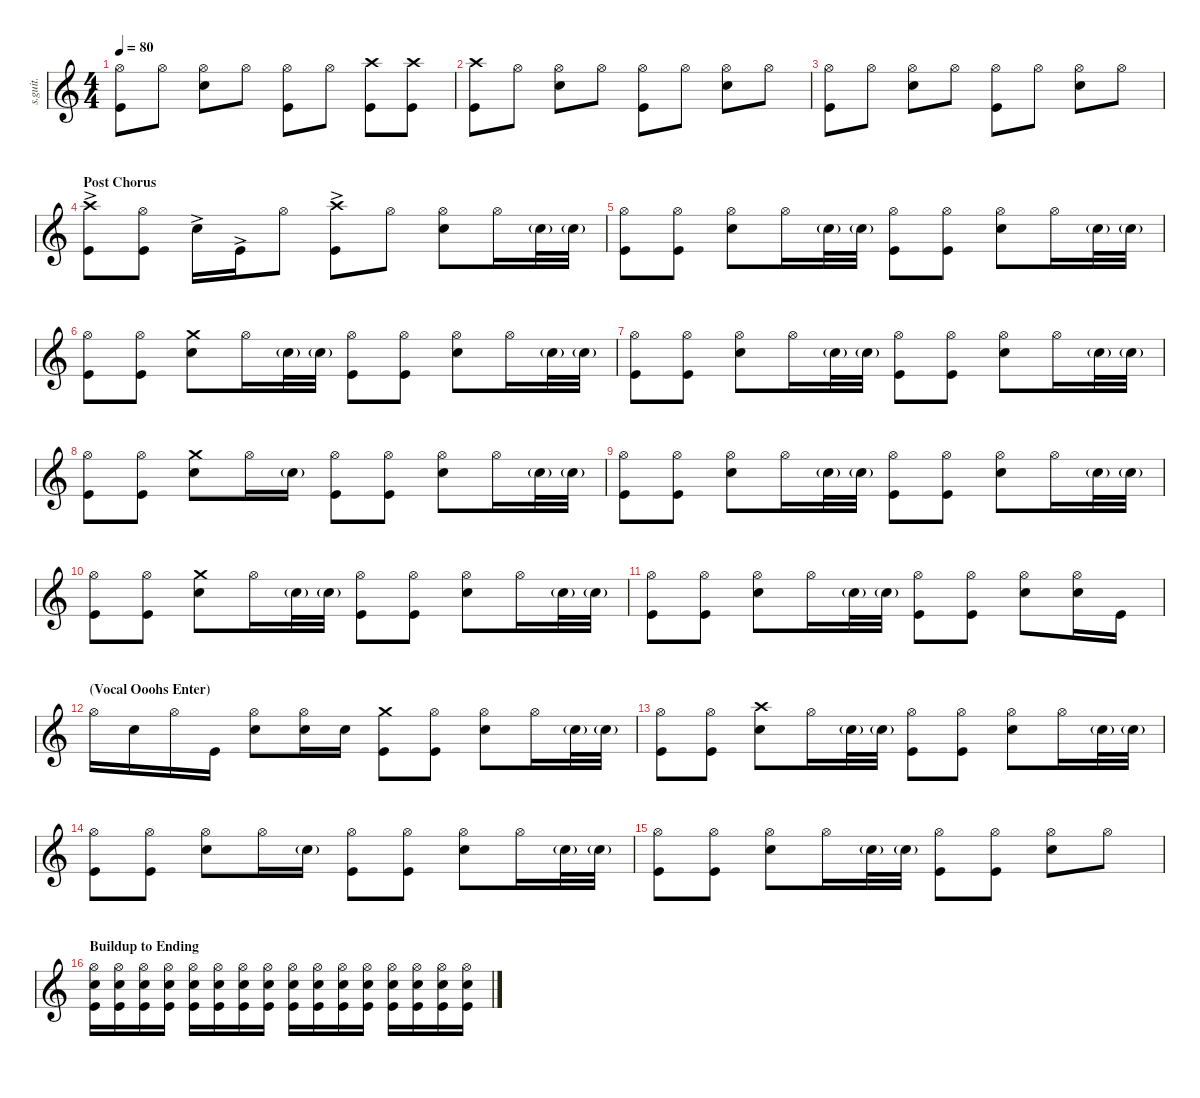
\defaultSystemsLayout 4
\hideDynamics
\bracketExtendMode nobrackets
\track ("Drums (Wilson)" "s.guit.") {instrument percussion}
\staff {score}
\articulation defaults
\ts (4 4)
\tempo 80
\clef g2
\ks c
("Hi-Hat (open)" "Kick (hit)").8{lyrics (0 "") lyrics (1 "") lyrics (2 "") lyrics (3 "") lyrics (4 "") dy f} "Hi-Hat (open)".8{lyrics (0 "") lyrics (1 "") lyrics (2 "") lyrics (3 "") lyrics (4 "")} ("Hi-Hat (open)" "Snare (hit) 2").8{lyrics (0 "") lyrics (1 "") lyrics (2 "") lyrics (3 "") lyrics (4 "")} "Hi-Hat (open)".8{lyrics (0 "") lyrics (1 "") lyrics (2 "") lyrics (3 "") lyrics (4 "")} ("Hi-Hat (open)" "Kick (hit)").8{lyrics (0 "") lyrics (1 "") lyrics (2 "") lyrics (3 "") lyrics (4 "")} "Hi-Hat (open)".8{lyrics (0 "") lyrics (1 "") lyrics (2 "") lyrics (3 "") lyrics (4 "")} ("Crash high (hit)" "Kick (hit)").8{lyrics (0 "") lyrics (1 "") lyrics (2 "") lyrics (3 "") lyrics (4 "")} ("Crash high (hit)" "Kick (hit)").8{lyrics (0 "") lyrics (1 "") lyrics (2 "") lyrics (3 "") lyrics (4 "")} |
("Crash high (hit)" "Kick (hit)").8{lyrics (0 "") lyrics (1 "") lyrics (2 "") lyrics (3 "") lyrics (4 "")} "Hi-Hat (open)".8{lyrics (0 "") lyrics (1 "") lyrics (2 "") lyrics (3 "") lyrics (4 "")} ("Hi-Hat (open)" "Snare (hit) 2").8{lyrics (0 "") lyrics (1 "") lyrics (2 "") lyrics (3 "") lyrics (4 "")} "Hi-Hat (open)".8{lyrics (0 "") lyrics (1 "") lyrics (2 "") lyrics (3 "") lyrics (4 "")} ("Hi-Hat (open)" "Kick (hit)").8{lyrics (0 "") lyrics (1 "") lyrics (2 "") lyrics (3 "") lyrics (4 "")} "Hi-Hat (open)".8{lyrics (0 "") lyrics (1 "") lyrics (2 "") lyrics (3 "") lyrics (4 "")} ("Hi-Hat (open)" "Snare (hit) 2").8{lyrics (0 "") lyrics (1 "") lyrics (2 "") lyrics (3 "") lyrics (4 "")} "Hi-Hat (open)".8{lyrics (0 "") lyrics (1 "") lyrics (2 "") lyrics (3 "") lyrics (4 "")} |
("Hi-Hat (open)" "Kick (hit)").8{lyrics (0 "") lyrics (1 "") lyrics (2 "") lyrics (3 "") lyrics (4 "")} "Hi-Hat (open)".8{lyrics (0 "") lyrics (1 "") lyrics (2 "") lyrics (3 "") lyrics (4 "")} ("Hi-Hat (open)" "Snare (hit) 2").8{lyrics (0 "") lyrics (1 "") lyrics (2 "") lyrics (3 "") lyrics (4 "")} "Hi-Hat (open)".8{lyrics (0 "") lyrics (1 "") lyrics (2 "") lyrics (3 "") lyrics (4 "")} ("Hi-Hat (open)" "Kick (hit)").8{lyrics (0 "") lyrics (1 "") lyrics (2 "") lyrics (3 "") lyrics (4 "")} "Hi-Hat (open)".8{lyrics (0 "") lyrics (1 "") lyrics (2 "") lyrics (3 "") lyrics (4 "")} ("Hi-Hat (open)" "Snare (hit) 2").8{lyrics (0 "") lyrics (1 "") lyrics (2 "") lyrics (3 "") lyrics (4 "")} "Hi-Hat (open)".8{lyrics (0 "") lyrics (1 "") lyrics (2 "") lyrics (3 "") lyrics (4 "")} |
\section ("" "Post Chorus")
("Crash high (hit)"{ac} "Kick (hit)"{ac}).8{lyrics (0 "") lyrics (1 "") lyrics (2 "") lyrics (3 "") lyrics (4 "")} ("Hi-Hat (open)" "Kick (hit)").8{lyrics (0 "") lyrics (1 "") lyrics (2 "") lyrics (3 "") lyrics (4 "")} "Snare (hit) 2"{ac}.16{lyrics (0 "") lyrics (1 "") lyrics (2 "") lyrics (3 "") lyrics (4 "")} "Kick (hit)"{ac}.16{lyrics (0 "") lyrics (1 "") lyrics (2 "") lyrics (3 "") lyrics (4 "")} "Hi-Hat (open)".8{lyrics (0 "") lyrics (1 "") lyrics (2 "") lyrics (3 "") lyrics (4 "")} ("Crash high (hit)"{ac} "Kick (hit)"{ac}).8{lyrics (0 "") lyrics (1 "") lyrics (2 "") lyrics (3 "") lyrics (4 "")} "Hi-Hat (open)".8{lyrics (0 "") lyrics (1 "") lyrics (2 "") lyrics (3 "") lyrics (4 "")} ("Hi-Hat (open)" "Snare (hit) 2").8{lyrics (0 "") lyrics (1 "") lyrics (2 "") lyrics (3 "") lyrics (4 "")} "Hi-Hat (open)".16{lyrics (0 "") lyrics (1 "") lyrics (2 "") lyrics (3 "") lyrics (4 "")} "Snare (hit) 2"{g}.32{lyrics (0 "") lyrics (1 "") lyrics (2 "") lyrics (3 "") lyrics (4 "") dy pp} "Snare (hit) 2"{g}.32{lyrics (0 "") lyrics (1 "") lyrics (2 "") lyrics (3 "") lyrics (4 "")} |
("Hi-Hat (open)" "Kick (hit)").8{lyrics (0 "") lyrics (1 "") lyrics (2 "") lyrics (3 "") lyrics (4 "") dy f} ("Hi-Hat (open)" "Kick (hit)").8{lyrics (0 "") lyrics (1 "") lyrics (2 "") lyrics (3 "") lyrics (4 "")} ("Hi-Hat (open)" "Snare (hit) 2").8{lyrics (0 "") lyrics (1 "") lyrics (2 "") lyrics (3 "") lyrics (4 "")} "Hi-Hat (open)".16{lyrics (0 "") lyrics (1 "") lyrics (2 "") lyrics (3 "") lyrics (4 "")} "Snare (hit) 2"{g}.32{lyrics (0 "") lyrics (1 "") lyrics (2 "") lyrics (3 "") lyrics (4 "") dy pp} "Snare (hit) 2"{g}.32{lyrics (0 "") lyrics (1 "") lyrics (2 "") lyrics (3 "") lyrics (4 "")} ("Hi-Hat (open)" "Kick (hit)").8{lyrics (0 "") lyrics (1 "") lyrics (2 "") lyrics (3 "") lyrics (4 "") dy f} ("Hi-Hat (open)" "Kick (hit)").8{lyrics (0 "") lyrics (1 "") lyrics (2 "") lyrics (3 "") lyrics (4 "")} ("Hi-Hat (open)" "Snare (hit) 2").8{lyrics (0 "") lyrics (1 "") lyrics (2 "") lyrics (3 "") lyrics (4 "")} "Hi-Hat (open)".16{lyrics (0 "") lyrics (1 "") lyrics (2 "") lyrics (3 "") lyrics (4 "")} "Snare (hit) 2"{g}.32{lyrics (0 "") lyrics (1 "") lyrics (2 "") lyrics (3 "") lyrics (4 "") dy pp} "Snare (hit) 2"{g}.32{lyrics (0 "") lyrics (1 "") lyrics (2 "") lyrics (3 "") lyrics (4 "")} |
("Hi-Hat (open)" "Kick (hit)").8{lyrics (0 "") lyrics (1 "") lyrics (2 "") lyrics (3 "") lyrics (4 "") dy f} ("Hi-Hat (open)" "Kick (hit)").8{lyrics (0 "") lyrics (1 "") lyrics (2 "") lyrics (3 "") lyrics (4 "")} ("Crash medium (hit)" "Snare (hit) 2").8{lyrics (0 "") lyrics (1 "") lyrics (2 "") lyrics (3 "") lyrics (4 "")} "Hi-Hat (open)".16{lyrics (0 "") lyrics (1 "") lyrics (2 "") lyrics (3 "") lyrics (4 "")} "Snare (hit) 2"{g}.32{lyrics (0 "") lyrics (1 "") lyrics (2 "") lyrics (3 "") lyrics (4 "") dy pp} "Snare (hit) 2"{g}.32{lyrics (0 "") lyrics (1 "") lyrics (2 "") lyrics (3 "") lyrics (4 "")} ("Hi-Hat (open)" "Kick (hit)").8{lyrics (0 "") lyrics (1 "") lyrics (2 "") lyrics (3 "") lyrics (4 "") dy f} ("Hi-Hat (open)" "Kick (hit)").8{lyrics (0 "") lyrics (1 "") lyrics (2 "") lyrics (3 "") lyrics (4 "")} ("Hi-Hat (open)" "Snare (hit) 2").8{lyrics (0 "") lyrics (1 "") lyrics (2 "") lyrics (3 "") lyrics (4 "")} "Hi-Hat (open)".16{lyrics (0 "") lyrics (1 "") lyrics (2 "") lyrics (3 "") lyrics (4 "")} "Snare (hit) 2"{g}.32{lyrics (0 "") lyrics (1 "") lyrics (2 "") lyrics (3 "") lyrics (4 "") dy pp} "Snare (hit) 2"{g}.32{lyrics (0 "") lyrics (1 "") lyrics (2 "") lyrics (3 "") lyrics (4 "")} |
("Hi-Hat (open)" "Kick (hit)").8{lyrics (0 "") lyrics (1 "") lyrics (2 "") lyrics (3 "") lyrics (4 "") dy f} ("Hi-Hat (open)" "Kick (hit)").8{lyrics (0 "") lyrics (1 "") lyrics (2 "") lyrics (3 "") lyrics (4 "")} ("Hi-Hat (open)" "Snare (hit) 2").8{lyrics (0 "") lyrics (1 "") lyrics (2 "") lyrics (3 "") lyrics (4 "")} "Hi-Hat (open)".16{lyrics (0 "") lyrics (1 "") lyrics (2 "") lyrics (3 "") lyrics (4 "")} "Snare (hit) 2"{g}.32{lyrics (0 "") lyrics (1 "") lyrics (2 "") lyrics (3 "") lyrics (4 "") dy pp} "Snare (hit) 2"{g}.32{lyrics (0 "") lyrics (1 "") lyrics (2 "") lyrics (3 "") lyrics (4 "")} ("Hi-Hat (open)" "Kick (hit)").8{lyrics (0 "") lyrics (1 "") lyrics (2 "") lyrics (3 "") lyrics (4 "") dy f} ("Hi-Hat (open)" "Kick (hit)").8{lyrics (0 "") lyrics (1 "") lyrics (2 "") lyrics (3 "") lyrics (4 "")} ("Hi-Hat (open)" "Snare (hit) 2").8{lyrics (0 "") lyrics (1 "") lyrics (2 "") lyrics (3 "") lyrics (4 "")} "Hi-Hat (open)".16{lyrics (0 "") lyrics (1 "") lyrics (2 "") lyrics (3 "") lyrics (4 "")} "Snare (hit) 2"{g}.32{lyrics (0 "") lyrics (1 "") lyrics (2 "") lyrics (3 "") lyrics (4 "") dy pp} "Snare (hit) 2"{g}.32{lyrics (0 "") lyrics (1 "") lyrics (2 "") lyrics (3 "") lyrics (4 "")} |
("Hi-Hat (open)" "Kick (hit)").8{lyrics (0 "") lyrics (1 "") lyrics (2 "") lyrics (3 "") lyrics (4 "") dy f} ("Hi-Hat (open)" "Kick (hit)").8{lyrics (0 "") lyrics (1 "") lyrics (2 "") lyrics (3 "") lyrics (4 "")} ("Crash medium (hit)" "Snare (hit) 2").8{lyrics (0 "") lyrics (1 "") lyrics (2 "") lyrics (3 "") lyrics (4 "")} "Hi-Hat (open)".16{lyrics (0 "") lyrics (1 "") lyrics (2 "") lyrics (3 "") lyrics (4 "")} "Snare (hit) 2"{g}.16{lyrics (0 "") lyrics (1 "") lyrics (2 "") lyrics (3 "") lyrics (4 "") dy pp} ("Hi-Hat (open)" "Kick (hit)").8{lyrics (0 "") lyrics (1 "") lyrics (2 "") lyrics (3 "") lyrics (4 "") dy f} ("Hi-Hat (open)" "Kick (hit)").8{lyrics (0 "") lyrics (1 "") lyrics (2 "") lyrics (3 "") lyrics (4 "")} ("Hi-Hat (open)" "Snare (hit) 2").8{lyrics (0 "") lyrics (1 "") lyrics (2 "") lyrics (3 "") lyrics (4 "")} "Hi-Hat (open)".16{lyrics (0 "") lyrics (1 "") lyrics (2 "") lyrics (3 "") lyrics (4 "")} "Snare (hit) 2"{g}.32{lyrics (0 "") lyrics (1 "") lyrics (2 "") lyrics (3 "") lyrics (4 "") dy pp} "Snare (hit) 2"{g}.32{lyrics (0 "") lyrics (1 "") lyrics (2 "") lyrics (3 "") lyrics (4 "")} |
("Hi-Hat (open)" "Kick (hit)").8{lyrics (0 "") lyrics (1 "") lyrics (2 "") lyrics (3 "") lyrics (4 "") dy f} ("Hi-Hat (open)" "Kick (hit)").8{lyrics (0 "") lyrics (1 "") lyrics (2 "") lyrics (3 "") lyrics (4 "")} ("Hi-Hat (open)" "Snare (hit) 2").8{lyrics (0 "") lyrics (1 "") lyrics (2 "") lyrics (3 "") lyrics (4 "")} "Hi-Hat (open)".16{lyrics (0 "") lyrics (1 "") lyrics (2 "") lyrics (3 "") lyrics (4 "")} "Snare (hit) 2"{g}.32{lyrics (0 "") lyrics (1 "") lyrics (2 "") lyrics (3 "") lyrics (4 "") dy pp} "Snare (hit) 2"{g}.32{lyrics (0 "") lyrics (1 "") lyrics (2 "") lyrics (3 "") lyrics (4 "")} ("Hi-Hat (open)" "Kick (hit)").8{lyrics (0 "") lyrics (1 "") lyrics (2 "") lyrics (3 "") lyrics (4 "") dy f} ("Hi-Hat (open)" "Kick (hit)").8{lyrics (0 "") lyrics (1 "") lyrics (2 "") lyrics (3 "") lyrics (4 "")} ("Hi-Hat (open)" "Snare (hit) 2").8{lyrics (0 "") lyrics (1 "") lyrics (2 "") lyrics (3 "") lyrics (4 "")} "Hi-Hat (open)".16{lyrics (0 "") lyrics (1 "") lyrics (2 "") lyrics (3 "") lyrics (4 "")} "Snare (hit) 2"{g}.32{lyrics (0 "") lyrics (1 "") lyrics (2 "") lyrics (3 "") lyrics (4 "") dy pp} "Snare (hit) 2"{g}.32{lyrics (0 "") lyrics (1 "") lyrics (2 "") lyrics (3 "") lyrics (4 "")} |
("Hi-Hat (open)" "Kick (hit)").8{lyrics (0 "") lyrics (1 "") lyrics (2 "") lyrics (3 "") lyrics (4 "") dy f} ("Hi-Hat (open)" "Kick (hit)").8{lyrics (0 "") lyrics (1 "") lyrics (2 "") lyrics (3 "") lyrics (4 "")} ("Crash medium (hit)" "Snare (hit) 2").8{lyrics (0 "") lyrics (1 "") lyrics (2 "") lyrics (3 "") lyrics (4 "")} "Hi-Hat (open)".16{lyrics (0 "") lyrics (1 "") lyrics (2 "") lyrics (3 "") lyrics (4 "")} "Snare (hit) 2"{g}.32{lyrics (0 "") lyrics (1 "") lyrics (2 "") lyrics (3 "") lyrics (4 "") dy pp} "Snare (hit) 2"{g}.32{lyrics (0 "") lyrics (1 "") lyrics (2 "") lyrics (3 "") lyrics (4 "")} ("Hi-Hat (open)" "Kick (hit)").8{lyrics (0 "") lyrics (1 "") lyrics (2 "") lyrics (3 "") lyrics (4 "") dy f} ("Hi-Hat (open)" "Kick (hit)").8{lyrics (0 "") lyrics (1 "") lyrics (2 "") lyrics (3 "") lyrics (4 "")} ("Hi-Hat (open)" "Snare (hit) 2").8{lyrics (0 "") lyrics (1 "") lyrics (2 "") lyrics (3 "") lyrics (4 "")} "Hi-Hat (open)".16{lyrics (0 "") lyrics (1 "") lyrics (2 "") lyrics (3 "") lyrics (4 "")} "Snare (hit) 2"{g}.32{lyrics (0 "") lyrics (1 "") lyrics (2 "") lyrics (3 "") lyrics (4 "") dy pp} "Snare (hit) 2"{g}.32{lyrics (0 "") lyrics (1 "") lyrics (2 "") lyrics (3 "") lyrics (4 "")} |
("Hi-Hat (open)" "Kick (hit)").8{lyrics (0 "") lyrics (1 "") lyrics (2 "") lyrics (3 "") lyrics (4 "") dy f} ("Hi-Hat (open)" "Kick (hit)").8{lyrics (0 "") lyrics (1 "") lyrics (2 "") lyrics (3 "") lyrics (4 "")} ("Hi-Hat (open)" "Snare (hit) 2").8{lyrics (0 "") lyrics (1 "") lyrics (2 "") lyrics (3 "") lyrics (4 "")} "Hi-Hat (open)".16{lyrics (0 "") lyrics (1 "") lyrics (2 "") lyrics (3 "") lyrics (4 "")} "Snare (hit) 2"{g}.32{lyrics (0 "") lyrics (1 "") lyrics (2 "") lyrics (3 "") lyrics (4 "") dy pp} "Snare (hit) 2"{g}.32{lyrics (0 "") lyrics (1 "") lyrics (2 "") lyrics (3 "") lyrics (4 "")} ("Hi-Hat (open)" "Kick (hit)").8{lyrics (0 "") lyrics (1 "") lyrics (2 "") lyrics (3 "") lyrics (4 "") dy f} ("Hi-Hat (open)" "Kick (hit)").8{lyrics (0 "") lyrics (1 "") lyrics (2 "") lyrics (3 "") lyrics (4 "")} ("Hi-Hat (open)" "Snare (hit) 2").8{lyrics (0 "") lyrics (1 "") lyrics (2 "") lyrics (3 "") lyrics (4 "")} ("Hi-Hat (open)" "Snare (hit) 2").16{lyrics (0 "") lyrics (1 "") lyrics (2 "") lyrics (3 "") lyrics (4 "")} "Kick (hit)".16{lyrics (0 "") lyrics (1 "") lyrics (2 "") lyrics (3 "") lyrics (4 "")} |
\section ("" "(Vocal Ooohs Enter)")
"Hi-Hat (open)".16{lyrics (0 "") lyrics (1 "") lyrics (2 "") lyrics (3 "") lyrics (4 "")} "Snare (hit) 2".16{lyrics (0 "") lyrics (1 "") lyrics (2 "") lyrics (3 "") lyrics (4 "")} "Hi-Hat (open)".16{lyrics (0 "") lyrics (1 "") lyrics (2 "") lyrics (3 "") lyrics (4 "")} "Kick (hit)".16{lyrics (0 "") lyrics (1 "") lyrics (2 "") lyrics (3 "") lyrics (4 "")} ("Hi-Hat (open)" "Snare (hit) 2").8{lyrics (0 "") lyrics (1 "") lyrics (2 "") lyrics (3 "") lyrics (4 "")} ("Hi-Hat (open)" "Snare (hit) 2").16{lyrics (0 "") lyrics (1 "") lyrics (2 "") lyrics (3 "") lyrics (4 "")} "Snare (hit) 2".16{lyrics (0 "") lyrics (1 "") lyrics (2 "") lyrics (3 "") lyrics (4 "")} ("Crash medium (hit)" "Kick (hit)").8{lyrics (0 "") lyrics (1 "") lyrics (2 "") lyrics (3 "") lyrics (4 "")} ("Hi-Hat (open)" "Kick (hit)").8{lyrics (0 "") lyrics (1 "") lyrics (2 "") lyrics (3 "") lyrics (4 "")} ("Hi-Hat (open)" "Snare (hit) 2").8{lyrics (0 "") lyrics (1 "") lyrics (2 "") lyrics (3 "") lyrics (4 "")} "Hi-Hat (open)".16{lyrics (0 "") lyrics (1 "") lyrics (2 "") lyrics (3 "") lyrics (4 "")} "Snare (hit) 2"{g}.32{lyrics (0 "") lyrics (1 "") lyrics (2 "") lyrics (3 "") lyrics (4 "") dy pp} "Snare (hit) 2"{g}.32{lyrics (0 "") lyrics (1 "") lyrics (2 "") lyrics (3 "") lyrics (4 "")} |
("Hi-Hat (open)" "Kick (hit)").8{lyrics (0 "") lyrics (1 "") lyrics (2 "") lyrics (3 "") lyrics (4 "") dy f} ("Hi-Hat (open)" "Kick (hit)").8{lyrics (0 "") lyrics (1 "") lyrics (2 "") lyrics (3 "") lyrics (4 "")} ("Crash high (hit)" "Snare (hit) 2").8{lyrics (0 "") lyrics (1 "") lyrics (2 "") lyrics (3 "") lyrics (4 "")} "Hi-Hat (open)".16{lyrics (0 "") lyrics (1 "") lyrics (2 "") lyrics (3 "") lyrics (4 "")} "Snare (hit) 2"{g}.32{lyrics (0 "") lyrics (1 "") lyrics (2 "") lyrics (3 "") lyrics (4 "") dy pp} "Snare (hit) 2"{g}.32{lyrics (0 "") lyrics (1 "") lyrics (2 "") lyrics (3 "") lyrics (4 "")} ("Hi-Hat (open)" "Kick (hit)").8{lyrics (0 "") lyrics (1 "") lyrics (2 "") lyrics (3 "") lyrics (4 "") dy f} ("Hi-Hat (open)" "Kick (hit)").8{lyrics (0 "") lyrics (1 "") lyrics (2 "") lyrics (3 "") lyrics (4 "")} ("Hi-Hat (open)" "Snare (hit) 2").8{lyrics (0 "") lyrics (1 "") lyrics (2 "") lyrics (3 "") lyrics (4 "")} "Hi-Hat (open)".16{lyrics (0 "") lyrics (1 "") lyrics (2 "") lyrics (3 "") lyrics (4 "")} "Snare (hit) 2"{g}.32{lyrics (0 "") lyrics (1 "") lyrics (2 "") lyrics (3 "") lyrics (4 "") dy pp} "Snare (hit) 2"{g}.32{lyrics (0 "") lyrics (1 "") lyrics (2 "") lyrics (3 "") lyrics (4 "")} |
("Hi-Hat (open)" "Kick (hit)").8{lyrics (0 "") lyrics (1 "") lyrics (2 "") lyrics (3 "") lyrics (4 "") dy f} ("Hi-Hat (open)" "Kick (hit)").8{lyrics (0 "") lyrics (1 "") lyrics (2 "") lyrics (3 "") lyrics (4 "")} ("Hi-Hat (open)" "Snare (hit) 2").8{lyrics (0 "") lyrics (1 "") lyrics (2 "") lyrics (3 "") lyrics (4 "")} "Hi-Hat (open)".16{lyrics (0 "") lyrics (1 "") lyrics (2 "") lyrics (3 "") lyrics (4 "")} "Snare (hit) 2"{g}.16{lyrics (0 "") lyrics (1 "") lyrics (2 "") lyrics (3 "") lyrics (4 "") dy pp} ("Hi-Hat (open)" "Kick (hit)").8{lyrics (0 "") lyrics (1 "") lyrics (2 "") lyrics (3 "") lyrics (4 "") dy f} ("Hi-Hat (open)" "Kick (hit)").8{lyrics (0 "") lyrics (1 "") lyrics (2 "") lyrics (3 "") lyrics (4 "")} ("Hi-Hat (open)" "Snare (hit) 2").8{lyrics (0 "") lyrics (1 "") lyrics (2 "") lyrics (3 "") lyrics (4 "")} "Hi-Hat (open)".16{lyrics (0 "") lyrics (1 "") lyrics (2 "") lyrics (3 "") lyrics (4 "")} "Snare (hit) 2"{g}.32{lyrics (0 "") lyrics (1 "") lyrics (2 "") lyrics (3 "") lyrics (4 "") dy pp} "Snare (hit) 2"{g}.32{lyrics (0 "") lyrics (1 "") lyrics (2 "") lyrics (3 "") lyrics (4 "")} |
("Hi-Hat (open)" "Kick (hit)").8{lyrics (0 "") lyrics (1 "") lyrics (2 "") lyrics (3 "") lyrics (4 "") dy f} ("Hi-Hat (open)" "Kick (hit)").8{lyrics (0 "") lyrics (1 "") lyrics (2 "") lyrics (3 "") lyrics (4 "")} ("Hi-Hat (open)" "Snare (hit) 2").8{lyrics (0 "") lyrics (1 "") lyrics (2 "") lyrics (3 "") lyrics (4 "")} "Hi-Hat (open)".16{lyrics (0 "") lyrics (1 "") lyrics (2 "") lyrics (3 "") lyrics (4 "")} "Snare (hit) 2"{g}.32{lyrics (0 "") lyrics (1 "") lyrics (2 "") lyrics (3 "") lyrics (4 "") dy pp} "Snare (hit) 2"{g}.32{lyrics (0 "") lyrics (1 "") lyrics (2 "") lyrics (3 "") lyrics (4 "")} ("Hi-Hat (open)" "Kick (hit)").8{lyrics (0 "") lyrics (1 "") lyrics (2 "") lyrics (3 "") lyrics (4 "") dy f} ("Hi-Hat (open)" "Kick (hit)").8{lyrics (0 "") lyrics (1 "") lyrics (2 "") lyrics (3 "") lyrics (4 "")} ("Hi-Hat (open)" "Snare (hit) 2").8{lyrics (0 "") lyrics (1 "") lyrics (2 "") lyrics (3 "") lyrics (4 "")} "Hi-Hat (open)".8{lyrics (0 "") lyrics (1 "") lyrics (2 "") lyrics (3 "") lyrics (4 "")} |
\section ("" "Buildup to Ending")
("Hi-Hat (open)" "Snare (hit) 2" "Kick (hit)").16{lyrics (0 "") lyrics (1 "") lyrics (2 "") lyrics (3 "") lyrics (4 "")} ("Hi-Hat (open)" "Snare (hit) 2" "Kick (hit)").16{lyrics (0 "") lyrics (1 "") lyrics (2 "") lyrics (3 "") lyrics (4 "") dy p} ("Hi-Hat (open)" "Snare (hit) 2" "Kick (hit)").16{lyrics (0 "") lyrics (1 "") lyrics (2 "") lyrics (3 "") lyrics (4 "")} ("Hi-Hat (open)" "Snare (hit) 2" "Kick (hit)").16{lyrics (0 "") lyrics (1 "") lyrics (2 "") lyrics (3 "") lyrics (4 "")} ("Hi-Hat (open)" "Snare (hit) 2" "Kick (hit)").16{lyrics (0 "") lyrics (1 "") lyrics (2 "") lyrics (3 "") lyrics (4 "")} ("Hi-Hat (open)" "Snare (hit) 2" "Kick (hit)").16{lyrics (0 "") lyrics (1 "") lyrics (2 "") lyrics (3 "") lyrics (4 "")} ("Hi-Hat (open)" "Snare (hit) 2" "Kick (hit)").16{lyrics (0 "") lyrics (1 "") lyrics (2 "") lyrics (3 "") lyrics (4 "")} ("Hi-Hat (open)" "Snare (hit) 2" "Kick (hit)").16{lyrics (0 "") lyrics (1 "") lyrics (2 "") lyrics (3 "") lyrics (4 "")} ("Hi-Hat (open)" "Snare (hit) 2" "Kick (hit)").16{lyrics (0 "") lyrics (1 "") lyrics (2 "") lyrics (3 "") lyrics (4 "") dy mp} ("Hi-Hat (open)" "Snare (hit) 2" "Kick (hit)").16{lyrics (0 "") lyrics (1 "") lyrics (2 "") lyrics (3 "") lyrics (4 "")} ("Hi-Hat (open)" "Snare (hit) 2" "Kick (hit)").16{lyrics (0 "") lyrics (1 "") lyrics (2 "") lyrics (3 "") lyrics (4 "")} ("Hi-Hat (open)" "Snare (hit) 2" "Kick (hit)").16{lyrics (0 "") lyrics (1 "") lyrics (2 "") lyrics (3 "") lyrics (4 "")} ("Hi-Hat (open)" "Snare (hit) 2" "Kick (hit)").16{lyrics (0 "") lyrics (1 "") lyrics (2 "") lyrics (3 "") lyrics (4 "")} ("Hi-Hat (open)" "Snare (hit) 2" "Kick (hit)").16{lyrics (0 "") lyrics (1 "") lyrics (2 "") lyrics (3 "") lyrics (4 "")} ("Hi-Hat (open)" "Snare (hit) 2" "Kick (hit)").16{lyrics (0 "") lyrics (1 "") lyrics (2 "") lyrics (3 "") lyrics (4 "")} ("Hi-Hat (open)" "Snare (hit) 2" "Kick (hit)").16{lyrics (0 "") lyrics (1 "") lyrics (2 "") lyrics (3 "") lyrics (4 "")}
